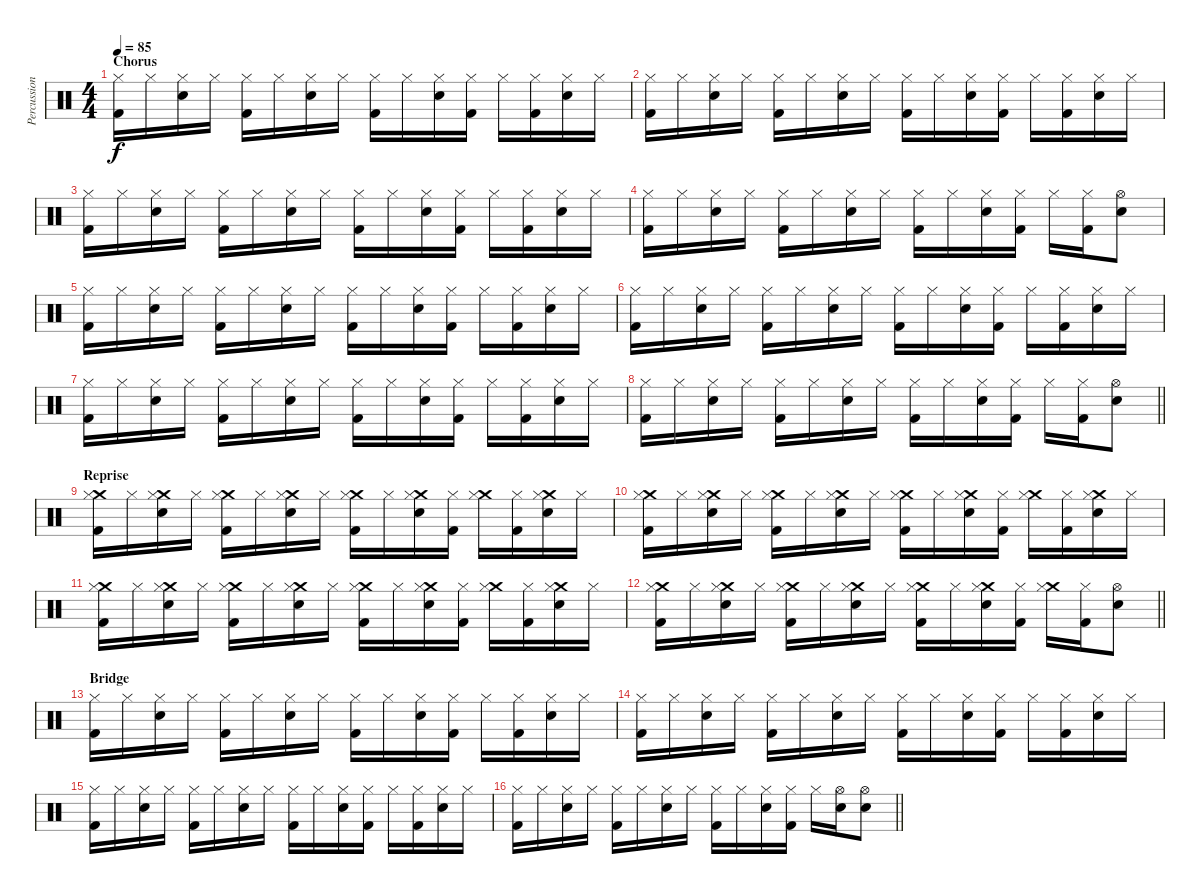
\track ("Percussion" "Percussion") {instrument percussion}
\staff {score}
\articulation defaults
\ts (4 4)
\section ("" "Chorus")
\tempo 85
\clef neutral
\ks c
("Hi-Hat (closed)" "Kick (hit) 2").16{dy f} "Hi-Hat (closed)".16 ("Hi-Hat (closed)" "Snare (hit) 2").16 "Hi-Hat (closed)".16 ("Hi-Hat (closed)" "Kick (hit) 2").16 "Hi-Hat (closed)".16 ("Hi-Hat (closed)" "Snare (hit) 2").16 "Hi-Hat (closed)".16 ("Hi-Hat (closed)" "Kick (hit) 2").16 "Hi-Hat (closed)".16 ("Hi-Hat (closed)" "Snare (hit) 2").16 ("Hi-Hat (closed)" "Kick (hit) 2").16 "Hi-Hat (closed)".16 ("Hi-Hat (closed)" "Kick (hit) 2").16 ("Hi-Hat (closed)" "Snare (hit) 2").16 "Hi-Hat (closed)".16 |
("Hi-Hat (closed)" "Kick (hit) 2").16 "Hi-Hat (closed)".16 ("Hi-Hat (closed)" "Snare (hit) 2").16 "Hi-Hat (closed)".16 ("Hi-Hat (closed)" "Kick (hit) 2").16 "Hi-Hat (closed)".16 ("Hi-Hat (closed)" "Snare (hit) 2").16 "Hi-Hat (closed)".16 ("Hi-Hat (closed)" "Kick (hit) 2").16 "Hi-Hat (closed)".16 ("Hi-Hat (closed)" "Snare (hit) 2").16 ("Hi-Hat (closed)" "Kick (hit) 2").16 "Hi-Hat (closed)".16 ("Hi-Hat (closed)" "Kick (hit) 2").16 ("Hi-Hat (closed)" "Snare (hit) 2").16 "Hi-Hat (closed)".16 |
("Hi-Hat (closed)" "Kick (hit) 2").16 "Hi-Hat (closed)".16 ("Hi-Hat (closed)" "Snare (hit) 2").16 "Hi-Hat (closed)".16 ("Hi-Hat (closed)" "Kick (hit) 2").16 "Hi-Hat (closed)".16 ("Hi-Hat (closed)" "Snare (hit) 2").16 "Hi-Hat (closed)".16 ("Hi-Hat (closed)" "Kick (hit) 2").16 "Hi-Hat (closed)".16 ("Hi-Hat (closed)" "Snare (hit) 2").16 ("Hi-Hat (closed)" "Kick (hit) 2").16 "Hi-Hat (closed)".16 ("Hi-Hat (closed)" "Kick (hit) 2").16 ("Hi-Hat (closed)" "Snare (hit) 2").16 "Hi-Hat (closed)".16 |
("Hi-Hat (closed)" "Kick (hit) 2").16 "Hi-Hat (closed)".16 ("Hi-Hat (closed)" "Snare (hit) 2").16 "Hi-Hat (closed)".16 ("Hi-Hat (closed)" "Kick (hit) 2").16 "Hi-Hat (closed)".16 ("Hi-Hat (closed)" "Snare (hit) 2").16 "Hi-Hat (closed)".16 ("Hi-Hat (closed)" "Kick (hit) 2").16 "Hi-Hat (closed)".16 ("Hi-Hat (closed)" "Snare (hit) 2").16 ("Hi-Hat (closed)" "Kick (hit) 2").16 "Hi-Hat (closed)".16 ("Hi-Hat (closed)" "Kick (hit) 2").16 ("Hi-Hat (open)" "Snare (hit) 2").8 |
("Hi-Hat (closed)" "Kick (hit) 2").16 "Hi-Hat (closed)".16 ("Hi-Hat (closed)" "Snare (hit) 2").16 "Hi-Hat (closed)".16 ("Hi-Hat (closed)" "Kick (hit) 2").16 "Hi-Hat (closed)".16 ("Hi-Hat (closed)" "Snare (hit) 2").16 "Hi-Hat (closed)".16 ("Hi-Hat (closed)" "Kick (hit) 2").16 "Hi-Hat (closed)".16 ("Hi-Hat (closed)" "Snare (hit) 2").16 ("Hi-Hat (closed)" "Kick (hit) 2").16 "Hi-Hat (closed)".16 ("Hi-Hat (closed)" "Kick (hit) 2").16 ("Hi-Hat (closed)" "Snare (hit) 2").16 "Hi-Hat (closed)".16 |
("Hi-Hat (closed)" "Kick (hit) 2").16 "Hi-Hat (closed)".16 ("Hi-Hat (closed)" "Snare (hit) 2").16 "Hi-Hat (closed)".16 ("Hi-Hat (closed)" "Kick (hit) 2").16 "Hi-Hat (closed)".16 ("Hi-Hat (closed)" "Snare (hit) 2").16 "Hi-Hat (closed)".16 ("Hi-Hat (closed)" "Kick (hit) 2").16 "Hi-Hat (closed)".16 ("Hi-Hat (closed)" "Snare (hit) 2").16 ("Hi-Hat (closed)" "Kick (hit) 2").16 "Hi-Hat (closed)".16 ("Hi-Hat (closed)" "Kick (hit) 2").16 ("Hi-Hat (closed)" "Snare (hit) 2").16 "Hi-Hat (closed)".16 |
("Hi-Hat (closed)" "Kick (hit) 2").16 "Hi-Hat (closed)".16 ("Hi-Hat (closed)" "Snare (hit) 2").16 "Hi-Hat (closed)".16 ("Hi-Hat (closed)" "Kick (hit) 2").16 "Hi-Hat (closed)".16 ("Hi-Hat (closed)" "Snare (hit) 2").16 "Hi-Hat (closed)".16 ("Hi-Hat (closed)" "Kick (hit) 2").16 "Hi-Hat (closed)".16 ("Hi-Hat (closed)" "Snare (hit) 2").16 ("Hi-Hat (closed)" "Kick (hit) 2").16 "Hi-Hat (closed)".16 ("Hi-Hat (closed)" "Kick (hit) 2").16 ("Hi-Hat (closed)" "Snare (hit) 2").16 "Hi-Hat (closed)".16 |
\barLineRight lightlight
("Hi-Hat (closed)" "Kick (hit) 2").16 "Hi-Hat (closed)".16 ("Hi-Hat (closed)" "Snare (hit) 2").16 "Hi-Hat (closed)".16 ("Hi-Hat (closed)" "Kick (hit) 2").16 "Hi-Hat (closed)".16 ("Hi-Hat (closed)" "Snare (hit) 2").16 "Hi-Hat (closed)".16 ("Hi-Hat (closed)" "Kick (hit) 2").16 "Hi-Hat (closed)".16 ("Hi-Hat (closed)" "Snare (hit) 2").16 ("Hi-Hat (closed)" "Kick (hit) 2").16 "Hi-Hat (closed)".16 ("Hi-Hat (closed)" "Kick (hit) 2").16 ("Hi-Hat (open)" "Snare (hit) 2").8 |
\section ("" "Reprise")
("Crash medium (hit)" "Hi-Hat (closed)" "Kick (hit) 2").16 "Hi-Hat (closed)".16 ("Crash medium (hit)" "Hi-Hat (closed)" "Snare (hit) 2").16 "Hi-Hat (closed)".16 ("Crash medium (hit)" "Hi-Hat (closed)" "Kick (hit) 2").16 "Hi-Hat (closed)".16 ("Crash medium (hit)" "Hi-Hat (closed)" "Snare (hit) 2").16 "Hi-Hat (closed)".16 ("Crash medium (hit)" "Hi-Hat (closed)" "Kick (hit) 2").16 "Hi-Hat (closed)".16 ("Crash medium (hit)" "Hi-Hat (closed)" "Snare (hit) 2").16 ("Hi-Hat (closed)" "Kick (hit) 2").16 ("Crash medium (hit)" "Hi-Hat (closed)").16 ("Hi-Hat (closed)" "Kick (hit) 2").16 ("Crash medium (hit)" "Hi-Hat (closed)" "Snare (hit) 2").16 "Hi-Hat (closed)".16 |
("Crash medium (hit)" "Hi-Hat (closed)" "Kick (hit) 2").16 "Hi-Hat (closed)".16 ("Crash medium (hit)" "Hi-Hat (closed)" "Snare (hit) 2").16 "Hi-Hat (closed)".16 ("Crash medium (hit)" "Hi-Hat (closed)" "Kick (hit) 2").16 "Hi-Hat (closed)".16 ("Crash medium (hit)" "Hi-Hat (closed)" "Snare (hit) 2").16 "Hi-Hat (closed)".16 ("Crash medium (hit)" "Hi-Hat (closed)" "Kick (hit) 2").16 "Hi-Hat (closed)".16 ("Crash medium (hit)" "Hi-Hat (closed)" "Snare (hit) 2").16 ("Hi-Hat (closed)" "Kick (hit) 2").16 ("Crash medium (hit)" "Hi-Hat (closed)").16 ("Hi-Hat (closed)" "Kick (hit) 2").16 ("Crash medium (hit)" "Hi-Hat (closed)" "Snare (hit) 2").16 "Hi-Hat (closed)".16 |
("Crash medium (hit)" "Hi-Hat (closed)" "Kick (hit) 2").16 "Hi-Hat (closed)".16 ("Crash medium (hit)" "Hi-Hat (closed)" "Snare (hit) 2").16 "Hi-Hat (closed)".16 ("Crash medium (hit)" "Hi-Hat (closed)" "Kick (hit) 2").16 "Hi-Hat (closed)".16 ("Crash medium (hit)" "Hi-Hat (closed)" "Snare (hit) 2").16 "Hi-Hat (closed)".16 ("Crash medium (hit)" "Hi-Hat (closed)" "Kick (hit) 2").16 "Hi-Hat (closed)".16 ("Crash medium (hit)" "Hi-Hat (closed)" "Snare (hit) 2").16 ("Hi-Hat (closed)" "Kick (hit) 2").16 ("Crash medium (hit)" "Hi-Hat (closed)").16 ("Hi-Hat (closed)" "Kick (hit) 2").16 ("Crash medium (hit)" "Hi-Hat (closed)" "Snare (hit) 2").16 "Hi-Hat (closed)".16 |
\barLineRight lightlight
("Crash medium (hit)" "Hi-Hat (closed)" "Kick (hit) 2").16 "Hi-Hat (closed)".16 ("Crash medium (hit)" "Hi-Hat (closed)" "Snare (hit) 2").16 "Hi-Hat (closed)".16 ("Crash medium (hit)" "Hi-Hat (closed)" "Kick (hit) 2").16 "Hi-Hat (closed)".16 ("Crash medium (hit)" "Hi-Hat (closed)" "Snare (hit) 2").16 "Hi-Hat (closed)".16 ("Crash medium (hit)" "Hi-Hat (closed)" "Kick (hit) 2").16 "Hi-Hat (closed)".16 ("Crash medium (hit)" "Hi-Hat (closed)" "Snare (hit) 2").16 ("Hi-Hat (closed)" "Kick (hit) 2").16 ("Crash medium (hit)" "Hi-Hat (closed)").16 ("Hi-Hat (closed)" "Kick (hit) 2").16 ("Hi-Hat (open)" "Snare (hit) 2").8 |
\section ("" "Bridge")
("Hi-Hat (closed)" "Kick (hit) 2").16 "Hi-Hat (closed)".16 ("Hi-Hat (closed)" "Snare (hit) 2").16 "Hi-Hat (closed)".16 ("Hi-Hat (closed)" "Kick (hit) 2").16 "Hi-Hat (closed)".16 ("Hi-Hat (closed)" "Snare (hit) 2").16 "Hi-Hat (closed)".16 ("Hi-Hat (closed)" "Kick (hit) 2").16 "Hi-Hat (closed)".16 ("Hi-Hat (closed)" "Snare (hit) 2").16 ("Hi-Hat (closed)" "Kick (hit) 2").16 "Hi-Hat (closed)".16 ("Hi-Hat (closed)" "Kick (hit) 2").16 ("Hi-Hat (closed)" "Snare (hit) 2").16 "Hi-Hat (closed)".16 |
("Hi-Hat (closed)" "Kick (hit) 2").16 "Hi-Hat (closed)".16 ("Hi-Hat (closed)" "Snare (hit) 2").16 "Hi-Hat (closed)".16 ("Hi-Hat (closed)" "Kick (hit) 2").16 "Hi-Hat (closed)".16 ("Hi-Hat (closed)" "Snare (hit) 2").16 "Hi-Hat (closed)".16 ("Hi-Hat (closed)" "Kick (hit) 2").16 "Hi-Hat (closed)".16 ("Hi-Hat (closed)" "Snare (hit) 2").16 ("Hi-Hat (closed)" "Kick (hit) 2").16 "Hi-Hat (closed)".16 ("Hi-Hat (closed)" "Kick (hit) 2").16 ("Hi-Hat (closed)" "Snare (hit) 2").16 "Hi-Hat (closed)".16 |
("Hi-Hat (closed)" "Kick (hit) 2").16 "Hi-Hat (closed)".16 ("Hi-Hat (closed)" "Snare (hit) 2").16 "Hi-Hat (closed)".16 ("Hi-Hat (closed)" "Kick (hit) 2").16 "Hi-Hat (closed)".16 ("Hi-Hat (closed)" "Snare (hit) 2").16 "Hi-Hat (closed)".16 ("Hi-Hat (closed)" "Kick (hit) 2").16 "Hi-Hat (closed)".16 ("Hi-Hat (closed)" "Snare (hit) 2").16 ("Hi-Hat (closed)" "Kick (hit) 2").16 "Hi-Hat (closed)".16 ("Hi-Hat (closed)" "Kick (hit) 2").16 ("Hi-Hat (closed)" "Snare (hit) 2").16 "Hi-Hat (closed)".16 |
\barLineRight lightlight
("Hi-Hat (closed)" "Kick (hit) 2").16 "Hi-Hat (closed)".16 ("Hi-Hat (closed)" "Snare (hit) 2").16 "Hi-Hat (closed)".16 ("Hi-Hat (closed)" "Kick (hit) 2").16 "Hi-Hat (closed)".16 ("Hi-Hat (closed)" "Snare (hit) 2").16 "Hi-Hat (closed)".16 ("Hi-Hat (closed)" "Kick (hit) 2").16 "Hi-Hat (closed)".16 ("Hi-Hat (closed)" "Snare (hit) 2").16 ("Hi-Hat (closed)" "Kick (hit) 2").16 "Hi-Hat (closed)".16 ("Hi-Hat (open)" "Snare (hit) 2").16 ("Hi-Hat (open)" "Snare (hit) 2").8
